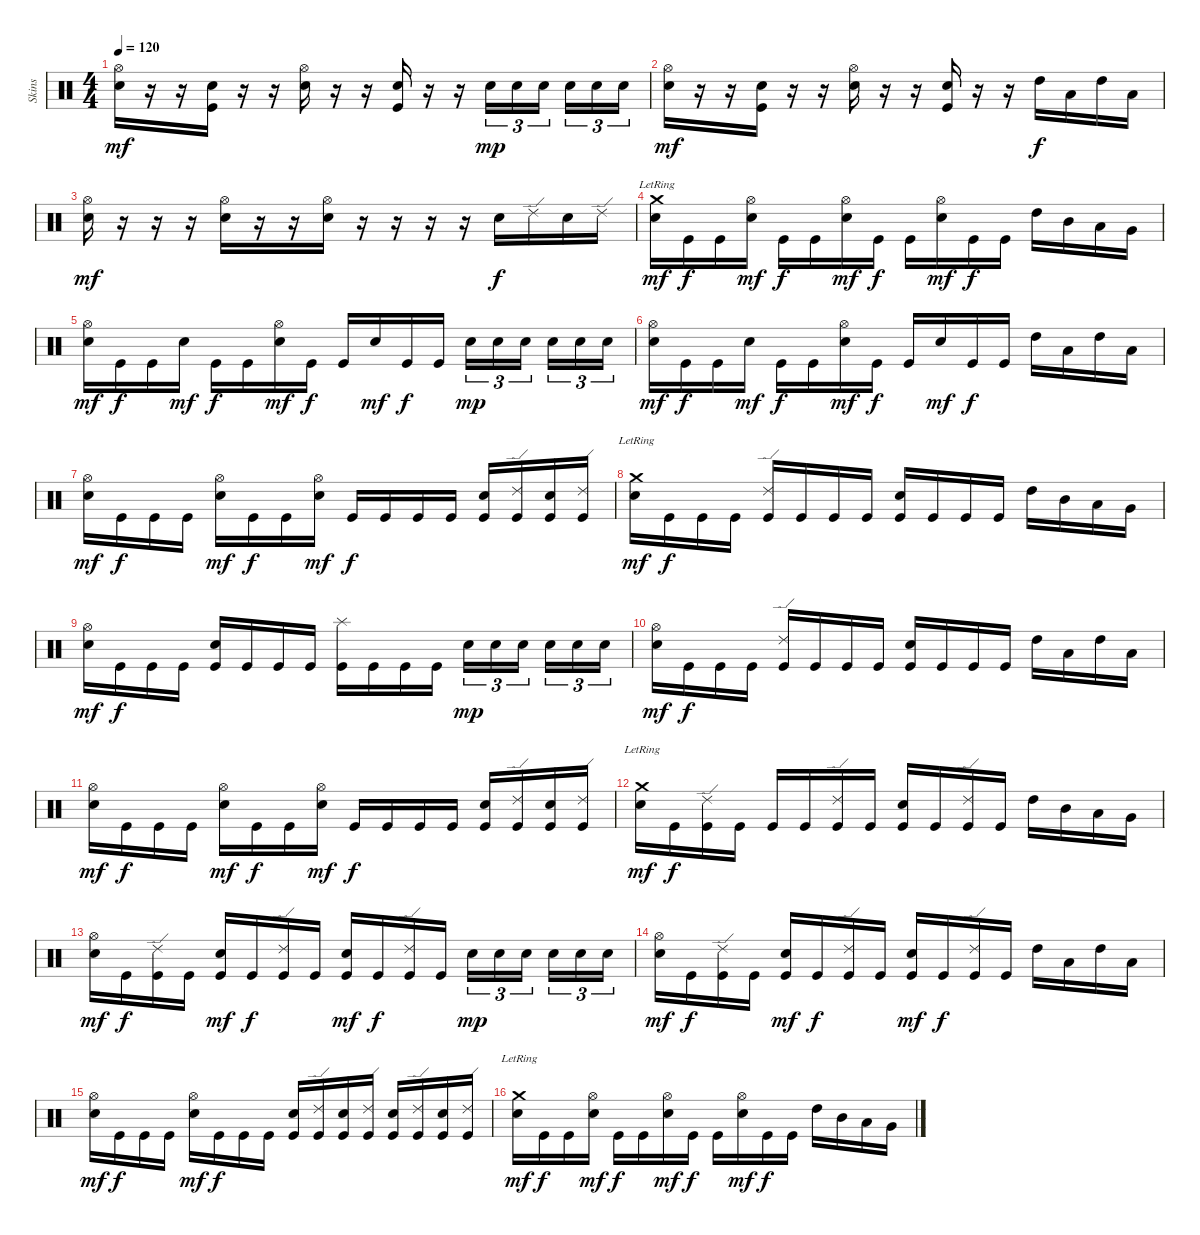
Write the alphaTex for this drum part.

\track ("Skins" "Skins") {instrument percussion}
\staff {score}
\articulation defaults
\ts (4 4)
\tempo 120
\clef neutral
\ks c
("Hi-Hat (open)" "Electric Snare (hit)").16{dy mf} r.16 r.16 ("Electric Snare (hit)" "Kick (hit)").16 r.16 r.16 ("Hi-Hat (open)" "Electric Snare (hit)").16 r.16 r.16 ("Electric Snare (hit)" "Kick (hit)").16 r.16 r.16 "Snare (hit) 2".16{tu (3 2) dy mp} "Snare (hit) 2".16{tu (3 2)} "Snare (hit) 2".16{tu (3 2)} "Snare (hit) 2".16{tu (3 2)} "Snare (hit) 2".16{tu (3 2)} "Snare (hit) 2".16{tu (3 2)} |
("Hi-Hat (open)" "Electric Snare (hit)").16{dy mf} r.16 r.16 ("Electric Snare (hit)" "Kick (hit)").16 r.16 r.16 ("Hi-Hat (open)" "Electric Snare (hit)").16 r.16 r.16 ("Electric Snare (hit)" "Kick (hit)").16 r.16 r.16 "High Tom (hit)".16{dy f} "Low Tom (hit)".16 "High Tom (hit)".16 "Low Tom (hit)".16 |
("Hi-Hat (open)" "Electric Snare (hit)").16{dy mf} r.16 r.16 r.16 ("Hi-Hat (open)" "Electric Snare (hit)").16 r.16 r.16 ("Hi-Hat (open)" "Electric Snare (hit)").16 r.16 r.16 r.16 r.16 "Snare (hit) 2".16{dy f} "Ride (edge) 2".16 "Snare (hit) 2".16 "Ride (edge) 2".16 |
("Crash medium (hit)"{lr} "Electric Snare (hit)").16{dy mf} "Kick (hit)".16{dy f} "Kick (hit)".16 ("Hi-Hat (open)" "Electric Snare (hit)").16{dy mf} "Kick (hit)".16{dy f} "Kick (hit)".16 ("Hi-Hat (open)" "Electric Snare (hit)").16{dy mf} "Kick (hit)".16{dy f} "Kick (hit)".16 ("Hi-Hat (open)" "Electric Snare (hit)").16{dy mf} "Kick (hit)".16{dy f} "Kick (hit)".16 "High Tom (hit)".16 "Mid Tom (hit)".16 "Low Tom (hit)".16 "Very Low Tom (hit)".16 |
("Hi-Hat (open)" "Electric Snare (hit)").16{dy mf} "Kick (hit)".16{dy f} "Kick (hit)".16 "Electric Snare (hit)".16{dy mf} "Kick (hit)".16{dy f} "Kick (hit)".16 ("Hi-Hat (open)" "Electric Snare (hit)").16{dy mf} "Kick (hit)".16{dy f} "Kick (hit)".16 "Electric Snare (hit)".16{dy mf} "Kick (hit)".16{dy f} "Kick (hit)".16 "Snare (hit) 2".16{tu (3 2) dy mp} "Snare (hit) 2".16{tu (3 2)} "Snare (hit) 2".16{tu (3 2)} "Snare (hit) 2".16{tu (3 2)} "Snare (hit) 2".16{tu (3 2)} "Snare (hit) 2".16{tu (3 2)} |
("Hi-Hat (open)" "Electric Snare (hit)").16{dy mf} "Kick (hit)".16{dy f} "Kick (hit)".16 "Electric Snare (hit)".16{dy mf} "Kick (hit)".16{dy f} "Kick (hit)".16 ("Hi-Hat (open)" "Electric Snare (hit)").16{dy mf} "Kick (hit)".16{dy f} "Kick (hit)".16 "Electric Snare (hit)".16{dy mf} "Kick (hit)".16{dy f} "Kick (hit)".16 "High Tom (hit)".16 "Low Tom (hit)".16 "High Tom (hit)".16 "Low Tom (hit)".16 |
("Hi-Hat (open)" "Electric Snare (hit)").16{dy mf} "Kick (hit)".16{dy f} "Kick (hit)".16 "Kick (hit)".16 ("Hi-Hat (open)" "Electric Snare (hit)").16{dy mf} "Kick (hit)".16{dy f} "Kick (hit)".16 ("Hi-Hat (open)" "Electric Snare (hit)").16{dy mf} "Kick (hit)".16{dy f} "Kick (hit)".16 "Kick (hit)".16 "Kick (hit)".16 ("Snare (hit) 2" "Kick (hit)").16 ("Ride (edge) 2" "Kick (hit)").16 ("Snare (hit) 2" "Kick (hit)").16 ("Ride (edge) 2" "Kick (hit)").16 |
("Crash medium (hit)"{lr} "Electric Snare (hit)").16{dy mf} "Kick (hit)".16{dy f} "Kick (hit)".16 "Kick (hit)".16 ("Ride (edge) 2" "Kick (hit)").16 "Kick (hit)".16 "Kick (hit)".16 "Kick (hit)".16 ("Electric Snare (hit)" "Kick (hit)").16 "Kick (hit)".16 "Kick (hit)".16 "Kick (hit)".16 "High Tom (hit)".16 "Mid Tom (hit)".16 "Low Tom (hit)".16 "Very Low Tom (hit)".16 |
("Hi-Hat (open)" "Electric Snare (hit)").16{dy mf} "Kick (hit)".16{dy f} "Kick (hit)".16 "Kick (hit)".16 ("Electric Snare (hit)" "Kick (hit)").16 "Kick (hit)".16 "Kick (hit)".16 "Kick (hit)".16 ("Splash (hit)" "Kick (hit)").16 "Kick (hit)".16 "Kick (hit)".16 "Kick (hit)".16 "Snare (hit) 2".16{tu (3 2) dy mp} "Snare (hit) 2".16{tu (3 2)} "Snare (hit) 2".16{tu (3 2)} "Snare (hit) 2".16{tu (3 2)} "Snare (hit) 2".16{tu (3 2)} "Snare (hit) 2".16{tu (3 2)} |
("Hi-Hat (open)" "Electric Snare (hit)").16{dy mf} "Kick (hit)".16{dy f} "Kick (hit)".16 "Kick (hit)".16 ("Ride (edge) 2" "Kick (hit)").16 "Kick (hit)".16 "Kick (hit)".16 "Kick (hit)".16 ("Snare (hit) 2" "Kick (hit)").16 "Kick (hit)".16 "Kick (hit)".16 "Kick (hit)".16 "High Tom (hit)".16 "Low Tom (hit)".16 "High Tom (hit)".16 "Low Tom (hit)".16 |
("Hi-Hat (open)" "Electric Snare (hit)").16{dy mf} "Kick (hit)".16{dy f} "Kick (hit)".16 "Kick (hit)".16 ("Hi-Hat (open)" "Electric Snare (hit)").16{dy mf} "Kick (hit)".16{dy f} "Kick (hit)".16 ("Hi-Hat (open)" "Electric Snare (hit)").16{dy mf} "Kick (hit)".16{dy f} "Kick (hit)".16 "Kick (hit)".16 "Kick (hit)".16 ("Snare (hit) 2" "Kick (hit)").16 ("Ride (edge) 2" "Kick (hit)").16 ("Snare (hit) 2" "Kick (hit)").16 ("Ride (edge) 2" "Kick (hit)").16 |
("Crash medium (hit)"{lr} "Electric Snare (hit)").16{dy mf} "Kick (hit)".16{dy f} ("Ride (edge) 2" "Kick (hit)").16 "Kick (hit)".16 "Kick (hit)".16 "Kick (hit)".16 ("Ride (edge) 2" "Kick (hit)").16 "Kick (hit)".16 ("Snare (hit) 2" "Kick (hit)").16 "Kick (hit)".16 ("Ride (edge) 2" "Kick (hit)").16 "Kick (hit)".16 "High Tom (hit)".16 "Mid Tom (hit)".16 "Low Tom (hit)".16 "Very Low Tom (hit)".16 |
("Hi-Hat (open)" "Electric Snare (hit)").16{dy mf} "Kick (hit)".16{dy f} ("Ride (edge) 2" "Kick (hit)").16 "Kick (hit)".16 ("Snare (hit) 2" "Kick (hit)").16{dy mf} "Kick (hit)".16{dy f} ("Ride (edge) 2" "Kick (hit)").16 "Kick (hit)".16 ("Snare (hit) 2" "Kick (hit)").16{dy mf} "Kick (hit)".16{dy f} ("Ride (edge) 2" "Kick (hit)").16 "Kick (hit)".16 "Snare (hit) 2".16{tu (3 2) dy mp} "Snare (hit) 2".16{tu (3 2)} "Snare (hit) 2".16{tu (3 2)} "Snare (hit) 2".16{tu (3 2)} "Snare (hit) 2".16{tu (3 2)} "Snare (hit) 2".16{tu (3 2)} |
("Hi-Hat (open)" "Electric Snare (hit)").16{dy mf} "Kick (hit)".16{dy f} ("Ride (edge) 2" "Kick (hit)").16 "Kick (hit)".16 ("Snare (hit) 2" "Kick (hit)").16{dy mf} "Kick (hit)".16{dy f} ("Ride (edge) 2" "Kick (hit)").16 "Kick (hit)".16 ("Snare (hit) 2" "Kick (hit)").16{dy mf} "Kick (hit)".16{dy f} ("Ride (edge) 2" "Kick (hit)").16 "Kick (hit)".16 "High Tom (hit)".16 "Low Tom (hit)".16 "High Tom (hit)".16 "Low Tom (hit)".16 |
("Hi-Hat (open)" "Electric Snare (hit)").16{dy mf} "Kick (hit)".16{dy f} "Kick (hit)".16 "Kick (hit)".16 ("Hi-Hat (open)" "Electric Snare (hit)").16{dy mf} "Kick (hit)".16{dy f} "Kick (hit)".16 "Kick (hit)".16 ("Snare (hit) 2" "Kick (hit)").16 ("Ride (edge) 2" "Kick (hit)").16 ("Snare (hit) 2" "Kick (hit)").16 ("Ride (edge) 2" "Kick (hit)").16 ("Snare (hit) 2" "Kick (hit)").16 ("Ride (edge) 2" "Kick (hit)").16 ("Snare (hit) 2" "Kick (hit)").16 ("Ride (edge) 2" "Kick (hit)").16 |
("Crash medium (hit)"{lr} "Electric Snare (hit)").16{dy mf} "Kick (hit)".16{dy f} "Kick (hit)".16 ("Hi-Hat (open)" "Electric Snare (hit)").16{dy mf} "Kick (hit)".16{dy f} "Kick (hit)".16 ("Hi-Hat (open)" "Electric Snare (hit)").16{dy mf} "Kick (hit)".16{dy f} "Kick (hit)".16 ("Hi-Hat (open)" "Electric Snare (hit)").16{dy mf} "Kick (hit)".16{dy f} "Kick (hit)".16 "High Tom (hit)".16 "Mid Tom (hit)".16 "Low Tom (hit)".16 "Very Low Tom (hit)".16
